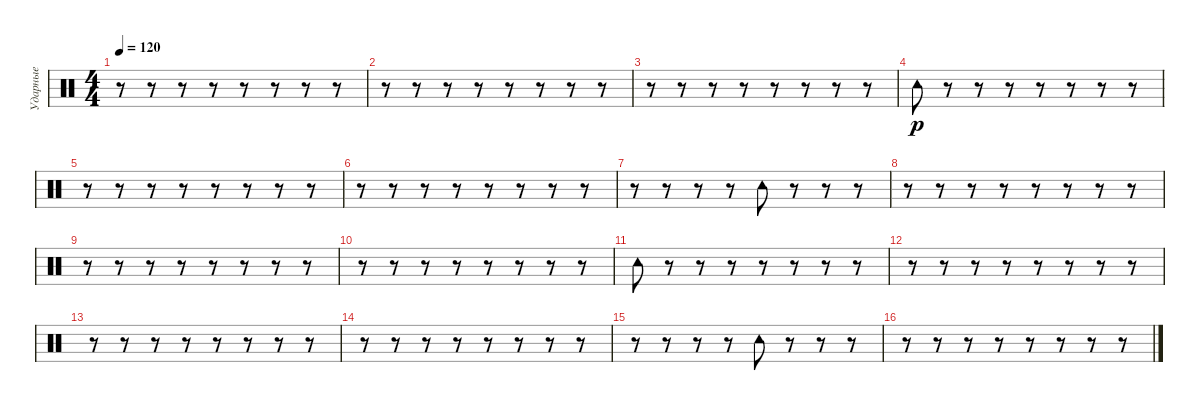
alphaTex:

\track ("Ударные" "Ударные") {instrument percussion}
\staff {score}
\articulation defaults
\ts (4 4)
\tempo 120
\clef neutral
\ks c
r.8{dy p} r.8 r.8 r.8 r.8 r.8 r.8 r.8 |
r.8 r.8 r.8 r.8 r.8 r.8 r.8 r.8 |
r.8 r.8 r.8 r.8 r.8 r.8 r.8 r.8 |
"Tambourine (hit)".8 r.8 r.8 r.8 r.8 r.8 r.8 r.8 |
r.8 r.8 r.8 r.8 r.8 r.8 r.8 r.8 |
r.8 r.8 r.8 r.8 r.8 r.8 r.8 r.8 |
r.8 r.8 r.8 r.8 "Tambourine (hit)".8 r.8 r.8 r.8 |
r.8 r.8 r.8 r.8 r.8 r.8 r.8 r.8 |
r.8 r.8 r.8 r.8 r.8 r.8 r.8 r.8 |
r.8 r.8 r.8 r.8 r.8 r.8 r.8 r.8 |
"Tambourine (hit)".8 r.8 r.8 r.8 r.8 r.8 r.8 r.8 |
r.8 r.8 r.8 r.8 r.8 r.8 r.8 r.8 |
r.8 r.8 r.8 r.8 r.8 r.8 r.8 r.8 |
r.8 r.8 r.8 r.8 r.8 r.8 r.8 r.8 |
r.8 r.8 r.8 r.8 "Tambourine (hit)".8 r.8 r.8 r.8 |
r.8 r.8 r.8 r.8 r.8 r.8 r.8 r.8
